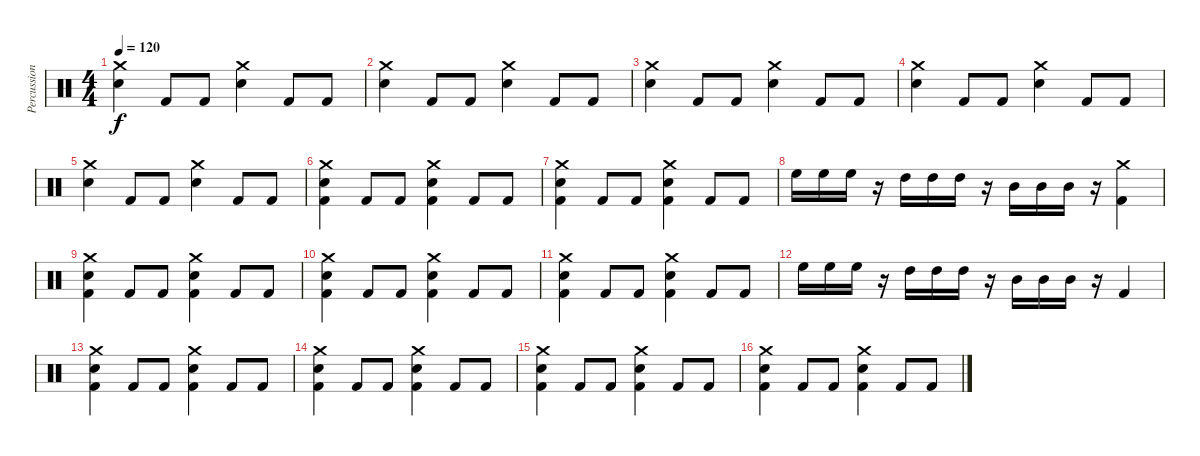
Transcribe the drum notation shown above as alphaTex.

\track ("Percussions" "Percussion") {instrument percussion}
\staff {score}
\articulation defaults
\ts (4 4)
\tempo 120
\clef neutral
\ks c
("Crash medium (hit)" "Snare (hit) 2").4{dy f} "Kick (hit) 2".8 "Kick (hit) 2".8 ("Crash medium (hit)" "Snare (hit) 2").4 "Kick (hit) 2".8 "Kick (hit) 2".8 |
("Crash medium (hit)" "Snare (hit) 2").4 "Kick (hit) 2".8 "Kick (hit) 2".8 ("Crash medium (hit)" "Snare (hit) 2").4 "Kick (hit) 2".8 "Kick (hit) 2".8 |
("Crash medium (hit)" "Snare (hit) 2").4 "Kick (hit) 2".8 "Kick (hit) 2".8 ("Crash medium (hit)" "Snare (hit) 2").4 "Kick (hit) 2".8 "Kick (hit) 2".8 |
("Crash medium (hit)" "Snare (hit) 2").4 "Kick (hit) 2".8 "Kick (hit) 2".8 ("Crash medium (hit)" "Snare (hit) 2").4 "Kick (hit) 2".8 "Kick (hit) 2".8 |
("Crash medium (hit)" "Snare (hit) 2").4 "Kick (hit) 2".8 "Kick (hit) 2".8 ("Crash medium (hit)" "Snare (hit) 2").4 "Kick (hit) 2".8 "Kick (hit) 2".8 |
("Crash medium (hit)" "Snare (hit) 2" "Kick (hit) 2").4 "Kick (hit) 2".8 "Kick (hit) 2".8 ("Crash medium (hit)" "Snare (hit) 2" "Kick (hit) 2").4 "Kick (hit) 2".8 "Kick (hit) 2".8 |
("Crash medium (hit)" "Snare (hit) 2" "Kick (hit) 2").4 "Kick (hit) 2".8 "Kick (hit) 2".8 ("Crash medium (hit)" "Snare (hit) 2" "Kick (hit) 2").4 "Kick (hit) 2".8 "Kick (hit) 2".8 |
"High Floor Tom (hit)".16 "High Floor Tom (hit)".16 "High Floor Tom (hit)".16 r.16 "High Tom (hit)".16 "High Tom (hit)".16 "High Tom (hit)".16 r.16 "Mid Tom (hit)".16 "Mid Tom (hit)".16 "Mid Tom (hit)".16 r.16 ("Crash medium (hit)" "Kick (hit) 2").4 |
("Crash medium (hit)" "Snare (hit) 2" "Kick (hit) 2").4 "Kick (hit) 2".8 "Kick (hit) 2".8 ("Crash medium (hit)" "Snare (hit) 2" "Kick (hit) 2").4 "Kick (hit) 2".8 "Kick (hit) 2".8 |
("Crash medium (hit)" "Snare (hit) 2" "Kick (hit) 2").4 "Kick (hit) 2".8 "Kick (hit) 2".8 ("Crash medium (hit)" "Snare (hit) 2" "Kick (hit) 2").4 "Kick (hit) 2".8 "Kick (hit) 2".8 |
("Crash medium (hit)" "Snare (hit) 2" "Kick (hit) 2").4 "Kick (hit) 2".8 "Kick (hit) 2".8 ("Crash medium (hit)" "Snare (hit) 2" "Kick (hit) 2").4 "Kick (hit) 2".8 "Kick (hit) 2".8 |
"High Floor Tom (hit)".16 "High Floor Tom (hit)".16 "High Floor Tom (hit)".16 r.16 "High Tom (hit)".16 "High Tom (hit)".16 "High Tom (hit)".16 r.16 "Mid Tom (hit)".16 "Mid Tom (hit)".16 "Mid Tom (hit)".16 r.16 "Kick (hit) 2".4 |
("Crash medium (hit)" "Snare (hit) 2" "Kick (hit) 2").4 "Kick (hit) 2".8 "Kick (hit) 2".8 ("Crash medium (hit)" "Snare (hit) 2" "Kick (hit) 2").4 "Kick (hit) 2".8 "Kick (hit) 2".8 |
("Crash medium (hit)" "Snare (hit) 2" "Kick (hit) 2").4 "Kick (hit) 2".8 "Kick (hit) 2".8 ("Crash medium (hit)" "Snare (hit) 2" "Kick (hit) 2").4 "Kick (hit) 2".8 "Kick (hit) 2".8 |
("Crash medium (hit)" "Snare (hit) 2" "Kick (hit) 2").4 "Kick (hit) 2".8 "Kick (hit) 2".8 ("Crash medium (hit)" "Snare (hit) 2" "Kick (hit) 2").4 "Kick (hit) 2".8 "Kick (hit) 2".8 |
("Crash medium (hit)" "Snare (hit) 2" "Kick (hit) 2").4 "Kick (hit) 2".8 "Kick (hit) 2".8 ("Crash medium (hit)" "Snare (hit) 2" "Kick (hit) 2").4 "Kick (hit) 2".8 "Kick (hit) 2".8
